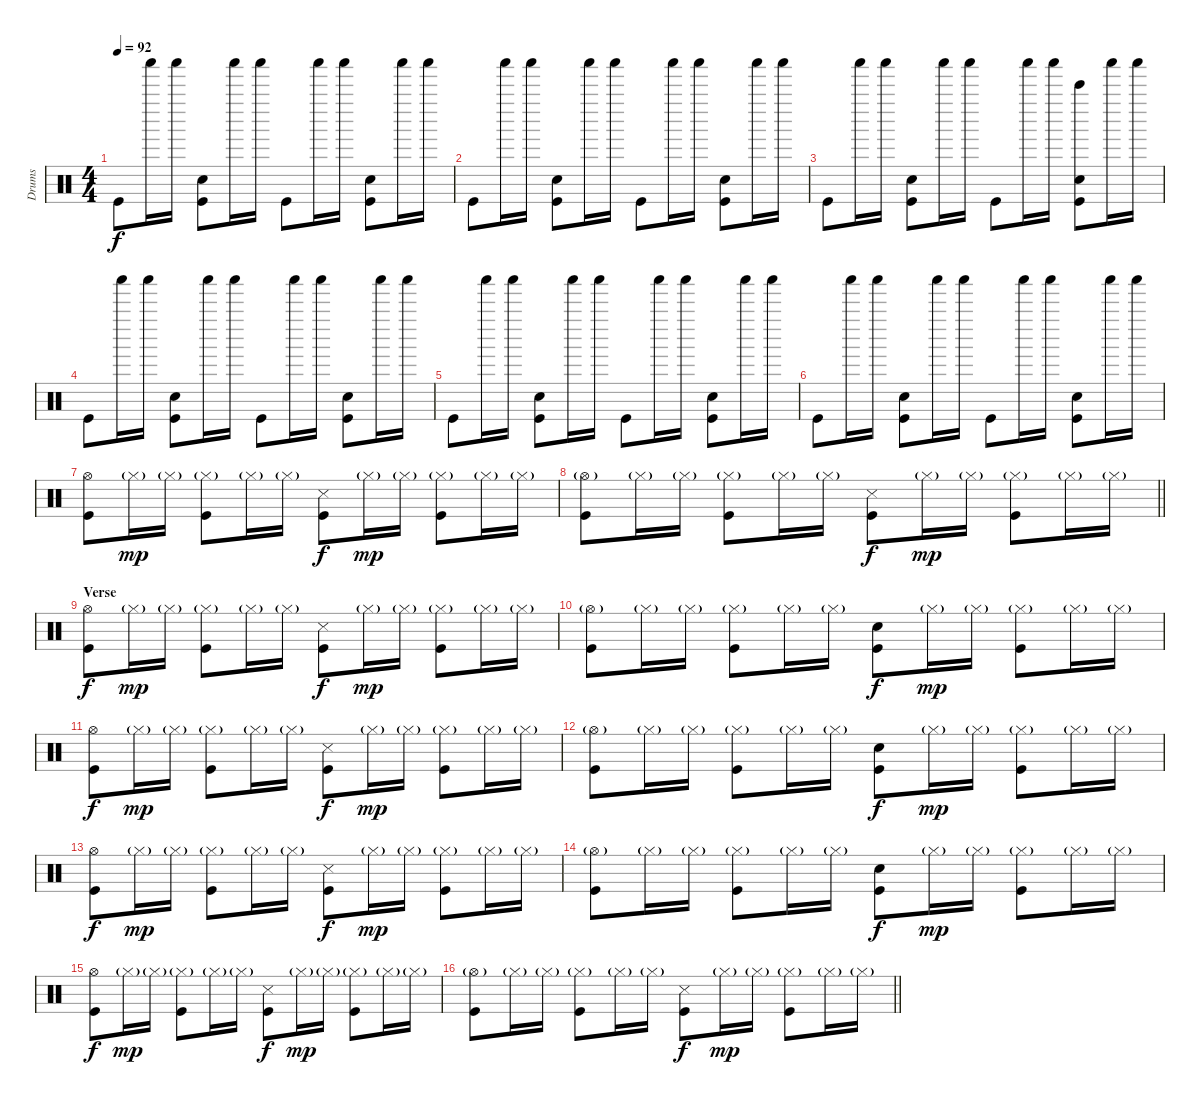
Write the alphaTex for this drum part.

\track ("Drums" "Drums") {instrument percussion}
\staff {score}
\articulation defaults
\ts (4 4)
\tempo 92
\clef neutral
\ks c "Kick (hit)".8{dy f} "Shaker (hit)".16 "Shaker (hit)".16
("Snare (hit) 2" "Kick (hit)").8 "Shaker (hit)".16 "Shaker (hit)".16 "Kick (hit)".8 "Shaker (hit)".16 "Shaker (hit)".16 ("Snare (hit) 2" "Kick (hit)").8 "Shaker (hit)".16 "Shaker (hit)".16 |
"Kick (hit)".8 "Shaker (hit)".16 "Shaker (hit)".16 ("Snare (hit) 2" "Kick (hit)").8 "Shaker (hit)".16 "Shaker (hit)".16 "Kick (hit)".8 "Shaker (hit)".16 "Shaker (hit)".16 ("Snare (hit) 2" "Kick (hit)").8 "Shaker (hit)".16 "Shaker (hit)".16 |
"Kick (hit)".8 "Shaker (hit)".16 "Shaker (hit)".16 ("Snare (hit) 2" "Kick (hit)").8 "Shaker (hit)".16 "Shaker (hit)".16 "Kick (hit)".8 "Shaker (hit)".16 "Shaker (hit)".16 ("Snare (hit) 2" "Bell Tree (hit)" "Kick (hit)").8 "Shaker (hit)".16 "Shaker (hit)".16 |
"Kick (hit)".8 "Shaker (hit)".16 "Shaker (hit)".16 ("Snare (hit) 2" "Kick (hit)").8 "Shaker (hit)".16 "Shaker (hit)".16 "Kick (hit)".8 "Shaker (hit)".16 "Shaker (hit)".16 ("Snare (hit) 2" "Kick (hit)").8 "Shaker (hit)".16 "Shaker (hit)".16 |
"Kick (hit)".8 "Shaker (hit)".16 "Shaker (hit)".16 ("Snare (hit) 2" "Kick (hit)").8 "Shaker (hit)".16 "Shaker (hit)".16 "Kick (hit)".8 "Shaker (hit)".16 "Shaker (hit)".16 ("Snare (hit) 2" "Kick (hit)").8 "Shaker (hit)".16 "Shaker (hit)".16 |
"Kick (hit)".8 "Shaker (hit)".16 "Shaker (hit)".16 ("Snare (hit) 2" "Kick (hit)").8 "Shaker (hit)".16 "Shaker (hit)".16 "Kick (hit)".8 "Shaker (hit)".16 "Shaker (hit)".16 ("Snare (hit) 2" "Kick (hit)").8 "Shaker (hit)".16 "Shaker (hit)".16 |
("Hi-Hat (open)" "Kick (hit)").8 "Hi-Hat (closed)"{g}.16{dy mp} "Hi-Hat (closed)"{g}.16 ("Hi-Hat (closed)"{g} "Kick (hit)").8 "Hi-Hat (closed)"{g}.16 "Hi-Hat (closed)"{g}.16 ("Metronome (hit)" "Kick (hit)").8{dy f} "Hi-Hat (closed)"{g}.16{dy mp} "Hi-Hat (closed)"{g}.16 ("Hi-Hat (closed)"{g} "Kick (hit)").8 "Hi-Hat (closed)"{g}.16 "Hi-Hat (closed)"{g}.16 |
\barLineRight lightlight
("Hi-Hat (open)"{g} "Kick (hit)").8 "Hi-Hat (closed)"{g}.16 "Hi-Hat (closed)"{g}.16 ("Hi-Hat (closed)"{g} "Kick (hit)").8 "Hi-Hat (closed)"{g}.16 "Hi-Hat (closed)"{g}.16 ("Metronome (hit)" "Kick (hit)").8{dy f} "Hi-Hat (closed)"{g}.16{dy mp} "Hi-Hat (closed)"{g}.16 ("Hi-Hat (closed)"{g} "Kick (hit)").8 "Hi-Hat (closed)"{g}.16 "Hi-Hat (closed)"{g}.16 |
\section ("" "Verse")
("Hi-Hat (open)" "Kick (hit)").8{dy f} "Hi-Hat (closed)"{g}.16{dy mp} "Hi-Hat (closed)"{g}.16 ("Hi-Hat (closed)"{g} "Kick (hit)").8 "Hi-Hat (closed)"{g}.16 "Hi-Hat (closed)"{g}.16 ("Metronome (hit)" "Kick (hit)").8{dy f} "Hi-Hat (closed)"{g}.16{dy mp} "Hi-Hat (closed)"{g}.16 ("Hi-Hat (closed)"{g} "Kick (hit)").8 "Hi-Hat (closed)"{g}.16 "Hi-Hat (closed)"{g}.16 |
("Hi-Hat (open)"{g} "Kick (hit)").8 "Hi-Hat (closed)"{g}.16 "Hi-Hat (closed)"{g}.16 ("Hi-Hat (closed)"{g} "Kick (hit)").8 "Hi-Hat (closed)"{g}.16 "Hi-Hat (closed)"{g}.16 ("Snare (hit) 2" "Kick (hit)").8{dy f} "Hi-Hat (closed)"{g}.16{dy mp} "Hi-Hat (closed)"{g}.16 ("Hi-Hat (closed)"{g} "Kick (hit)").8 "Hi-Hat (closed)"{g}.16 "Hi-Hat (closed)"{g}.16 |
("Hi-Hat (open)" "Kick (hit)").8{dy f} "Hi-Hat (closed)"{g}.16{dy mp} "Hi-Hat (closed)"{g}.16 ("Hi-Hat (closed)"{g} "Kick (hit)").8 "Hi-Hat (closed)"{g}.16 "Hi-Hat (closed)"{g}.16 ("Metronome (hit)" "Kick (hit)").8{dy f} "Hi-Hat (closed)"{g}.16{dy mp} "Hi-Hat (closed)"{g}.16 ("Hi-Hat (closed)"{g} "Kick (hit)").8 "Hi-Hat (closed)"{g}.16 "Hi-Hat (closed)"{g}.16 |
("Hi-Hat (open)"{g} "Kick (hit)").8 "Hi-Hat (closed)"{g}.16 "Hi-Hat (closed)"{g}.16 ("Hi-Hat (closed)"{g} "Kick (hit)").8 "Hi-Hat (closed)"{g}.16 "Hi-Hat (closed)"{g}.16 ("Snare (hit) 2" "Kick (hit)").8{dy f} "Hi-Hat (closed)"{g}.16{dy mp} "Hi-Hat (closed)"{g}.16 ("Hi-Hat (closed)"{g} "Kick (hit)").8 "Hi-Hat (closed)"{g}.16 "Hi-Hat (closed)"{g}.16 |
("Hi-Hat (open)" "Kick (hit)").8{dy f} "Hi-Hat (closed)"{g}.16{dy mp} "Hi-Hat (closed)"{g}.16 ("Hi-Hat (closed)"{g} "Kick (hit)").8 "Hi-Hat (closed)"{g}.16 "Hi-Hat (closed)"{g}.16 ("Metronome (hit)" "Kick (hit)").8{dy f} "Hi-Hat (closed)"{g}.16{dy mp} "Hi-Hat (closed)"{g}.16 ("Hi-Hat (closed)"{g} "Kick (hit)").8 "Hi-Hat (closed)"{g}.16 "Hi-Hat (closed)"{g}.16 |
("Hi-Hat (open)"{g} "Kick (hit)").8 "Hi-Hat (closed)"{g}.16 "Hi-Hat (closed)"{g}.16 ("Hi-Hat (closed)"{g} "Kick (hit)").8 "Hi-Hat (closed)"{g}.16 "Hi-Hat (closed)"{g}.16 ("Snare (hit) 2" "Kick (hit)").8{dy f} "Hi-Hat (closed)"{g}.16{dy mp} "Hi-Hat (closed)"{g}.16 ("Hi-Hat (closed)"{g} "Kick (hit)").8 "Hi-Hat (closed)"{g}.16 "Hi-Hat (closed)"{g}.16 |
("Hi-Hat (open)" "Kick (hit)").8{dy f} "Hi-Hat (closed)"{g}.16{dy mp} "Hi-Hat (closed)"{g}.16 ("Hi-Hat (closed)"{g} "Kick (hit)").8 "Hi-Hat (closed)"{g}.16 "Hi-Hat (closed)"{g}.16 ("Metronome (hit)" "Kick (hit)").8{dy f} "Hi-Hat (closed)"{g}.16{dy mp} "Hi-Hat (closed)"{g}.16 ("Hi-Hat (closed)"{g} "Kick (hit)").8 "Hi-Hat (closed)"{g}.16 "Hi-Hat (closed)"{g}.16 |
\barLineRight lightlight
("Hi-Hat (open)"{g} "Kick (hit)").8 "Hi-Hat (closed)"{g}.16 "Hi-Hat (closed)"{g}.16 ("Hi-Hat (closed)"{g} "Kick (hit)").8 "Hi-Hat (closed)"{g}.16 "Hi-Hat (closed)"{g}.16 ("Metronome (hit)" "Kick (hit)").8{dy f} "Hi-Hat (closed)"{g}.16{dy mp} "Hi-Hat (closed)"{g}.16 ("Hi-Hat (closed)"{g} "Kick (hit)").8 "Hi-Hat (closed)"{g}.16 "Hi-Hat (closed)"{g}.16
